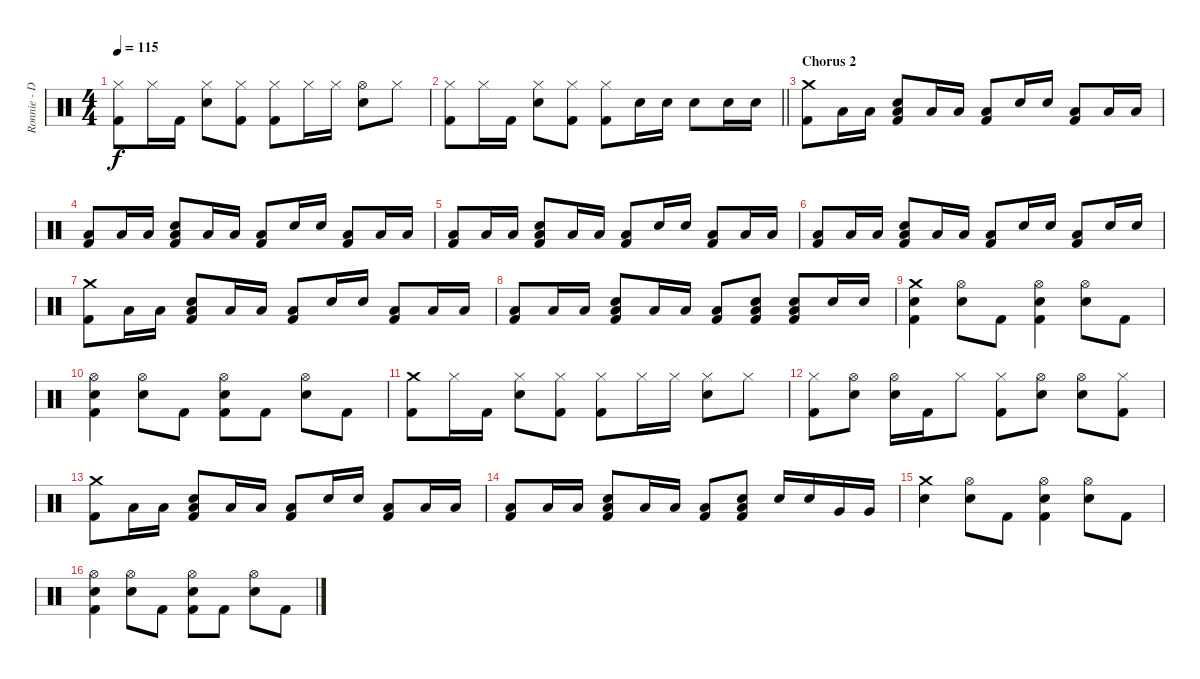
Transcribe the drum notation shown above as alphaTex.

\track ("Ronnie - Drums" "Ronnie - D") {instrument percussion}
\staff {score}
\articulation defaults
\ts (4 4)
\tempo 115
\clef neutral
\ks c
("Hi-Hat (closed)" "Kick (hit) 2").8{dy f} "Hi-Hat (closed)".16 "Kick (hit) 2".16 ("Hi-Hat (closed)" "Electric Snare (hit)").8 ("Hi-Hat (closed)" "Kick (hit) 2").8 ("Hi-Hat (closed)" "Kick (hit) 2").8 "Hi-Hat (closed)".16 "Hi-Hat (closed)".16 ("Hi-Hat (open)" "Electric Snare (hit)").8 "Hi-Hat (closed)".8 |
\barLineRight lightlight
("Hi-Hat (closed)" "Kick (hit) 2").8 "Hi-Hat (closed)".16 "Kick (hit) 2".16 ("Hi-Hat (closed)" "Electric Snare (hit)").8 ("Hi-Hat (closed)" "Kick (hit) 2").8 ("Hi-Hat (closed)" "Kick (hit) 2").8 "Electric Snare (hit)".16 "Electric Snare (hit)".16 "Electric Snare (hit)".8 "Electric Snare (hit)".16 "Electric Snare (hit)".16 |
\section ("" "Chorus 2")
("Crash medium (hit)" "Kick (hit) 2").8 "Low Floor Tom (hit)".16 "Low Floor Tom (hit)".16 ("Low Floor Tom (hit)" "Electric Snare (hit)" "Kick (hit) 2").8 "Low Floor Tom (hit)".16 "Low Floor Tom (hit)".16 ("Low Floor Tom (hit)" "Kick (hit) 2").8 "Electric Snare (hit)".16 "Electric Snare (hit)".16 ("Low Floor Tom (hit)" "Kick (hit) 2").8 "Low Floor Tom (hit)".16 "Low Floor Tom (hit)".16 |
("Low Floor Tom (hit)" "Kick (hit) 2").8 "Low Floor Tom (hit)".16 "Low Floor Tom (hit)".16 ("Low Floor Tom (hit)" "Electric Snare (hit)" "Kick (hit) 2").8 "Low Floor Tom (hit)".16 "Low Floor Tom (hit)".16 ("Low Floor Tom (hit)" "Kick (hit) 2").8 "Electric Snare (hit)".16 "Electric Snare (hit)".16 ("Low Floor Tom (hit)" "Kick (hit) 2").8 "Low Floor Tom (hit)".16 "Low Floor Tom (hit)".16 |
("Low Floor Tom (hit)" "Kick (hit) 2").8 "Low Floor Tom (hit)".16 "Low Floor Tom (hit)".16 ("Low Floor Tom (hit)" "Electric Snare (hit)" "Kick (hit) 2").8 "Low Floor Tom (hit)".16 "Low Floor Tom (hit)".16 ("Low Floor Tom (hit)" "Kick (hit) 2").8 "Electric Snare (hit)".16 "Electric Snare (hit)".16 ("Low Floor Tom (hit)" "Kick (hit) 2").8 "Low Floor Tom (hit)".16 "Low Floor Tom (hit)".16 |
("Low Floor Tom (hit)" "Kick (hit) 2").8 "Low Floor Tom (hit)".16 "Low Floor Tom (hit)".16 ("Low Floor Tom (hit)" "Electric Snare (hit)" "Kick (hit) 2").8 "Low Floor Tom (hit)".16 "Low Floor Tom (hit)".16 ("Low Floor Tom (hit)" "Kick (hit) 2").8 "Electric Snare (hit)".16 "Electric Snare (hit)".16 ("Low Floor Tom (hit)" "Kick (hit) 2").8 "Electric Snare (hit)".16 "Electric Snare (hit)".16 |
("Crash medium (hit)" "Kick (hit) 2").8 "Low Floor Tom (hit)".16 "Low Floor Tom (hit)".16 ("Low Floor Tom (hit)" "Electric Snare (hit)" "Kick (hit) 2").8 "Low Floor Tom (hit)".16 "Low Floor Tom (hit)".16 ("Low Floor Tom (hit)" "Kick (hit) 2").8 "Electric Snare (hit)".16 "Electric Snare (hit)".16 ("Low Floor Tom (hit)" "Kick (hit) 2").8 "Low Floor Tom (hit)".16 "Low Floor Tom (hit)".16 |
("Low Floor Tom (hit)" "Kick (hit) 2").8 "Low Floor Tom (hit)".16 "Low Floor Tom (hit)".16 ("Low Floor Tom (hit)" "Electric Snare (hit)" "Kick (hit) 2").8 "Low Floor Tom (hit)".16 "Low Floor Tom (hit)".16 ("Low Floor Tom (hit)" "Kick (hit) 2").8 ("Low Floor Tom (hit)" "Electric Snare (hit)" "Kick (hit) 2").8 ("Low Floor Tom (hit)" "Electric Snare (hit)" "Kick (hit) 2").8 "Electric Snare (hit)".16 "Electric Snare (hit)".16 |
("Crash medium (hit)" "Electric Snare (hit)" "Kick (hit) 2").4 ("Hi-Hat (open)" "Electric Snare (hit)").8 "Kick (hit) 2".8 ("Hi-Hat (open)" "Electric Snare (hit)" "Kick (hit) 2").4 ("Hi-Hat (open)" "Electric Snare (hit)").8 "Kick (hit) 2".8 |
("Hi-Hat (open)" "Electric Snare (hit)" "Kick (hit) 2").4 ("Hi-Hat (open)" "Electric Snare (hit)").8 "Kick (hit) 2".8 ("Hi-Hat (open)" "Electric Snare (hit)" "Kick (hit) 2").8 "Kick (hit) 2".8 ("Hi-Hat (open)" "Electric Snare (hit)").8 "Kick (hit) 2".8 |
("Crash medium (hit)" "Kick (hit) 2").8 "Hi-Hat (closed)".16 "Kick (hit) 2".16 ("Hi-Hat (closed)" "Electric Snare (hit)").8 ("Hi-Hat (closed)" "Kick (hit) 2").8 ("Hi-Hat (closed)" "Kick (hit) 2").8 "Hi-Hat (closed)".16 "Hi-Hat (closed)".16 ("Hi-Hat (closed)" "Electric Snare (hit)").8 "Hi-Hat (closed)".8 |
("Hi-Hat (closed)" "Kick (hit) 2").8 ("Hi-Hat (open)" "Electric Snare (hit)").8 ("Hi-Hat (open)" "Electric Snare (hit)").16 "Kick (hit) 2".16 "Hi-Hat (closed)".8 ("Hi-Hat (closed)" "Kick (hit) 2").8 ("Hi-Hat (open)" "Electric Snare (hit)").8 ("Hi-Hat (open)" "Electric Snare (hit)").8 ("Hi-Hat (closed)" "Kick (hit) 2").8 |
("Crash medium (hit)" "Kick (hit) 2").8 "Low Floor Tom (hit)".16 "Low Floor Tom (hit)".16 ("Low Floor Tom (hit)" "Electric Snare (hit)" "Kick (hit) 2").8 "Low Floor Tom (hit)".16 "Low Floor Tom (hit)".16 ("Low Floor Tom (hit)" "Kick (hit) 2").8 "Electric Snare (hit)".16 "Electric Snare (hit)".16 ("Low Floor Tom (hit)" "Kick (hit) 2").8 "Low Floor Tom (hit)".16 "Low Floor Tom (hit)".16 |
("Low Floor Tom (hit)" "Kick (hit) 2").8 "Low Floor Tom (hit)".16 "Low Floor Tom (hit)".16 ("Low Floor Tom (hit)" "Electric Snare (hit)" "Kick (hit) 2").8 "Low Floor Tom (hit)".16 "Low Floor Tom (hit)".16 ("Low Floor Tom (hit)" "Kick (hit) 2").8 ("Low Floor Tom (hit)" "Electric Snare (hit)" "Kick (hit) 2").8 "Electric Snare (hit)".16 "Electric Snare (hit)".16 "Very Low Tom (hit)".16 "Very Low Tom (hit)".16 |
("Crash medium (hit)" "Electric Snare (hit)").4 ("Hi-Hat (open)" "Electric Snare (hit)").8 "Kick (hit) 2".8 ("Hi-Hat (open)" "Electric Snare (hit)" "Kick (hit) 2").4 ("Hi-Hat (open)" "Electric Snare (hit)").8 "Kick (hit) 2".8 |
("Hi-Hat (open)" "Electric Snare (hit)" "Kick (hit) 2").4 ("Hi-Hat (open)" "Electric Snare (hit)").8 "Kick (hit) 2".8 ("Hi-Hat (open)" "Electric Snare (hit)" "Kick (hit) 2").8 "Kick (hit) 2".8 ("Hi-Hat (open)" "Electric Snare (hit)").8 "Kick (hit) 2".8
